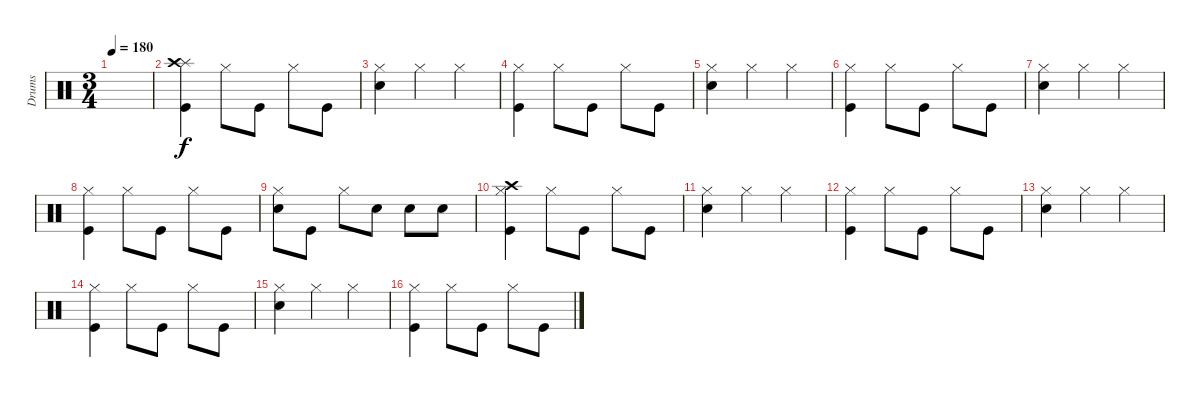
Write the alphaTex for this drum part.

\track ("Drums" "Drums") {instrument percussion}
\staff {score}
\articulation defaults
\ts (3 4)
\tempo 180
\clef neutral
\ks c
|
("Splash (hit)" "Crash high (hit)" "Kick (hit)").4 "Hi-Hat (closed)".8 "Kick (hit)".8 "Hi-Hat (closed)".8 "Kick (hit)".8 |
("Hi-Hat (closed)" "Electric Snare (hit)").4 "Hi-Hat (closed)".4 "Hi-Hat (closed)".4 |
("Hi-Hat (closed)" "Kick (hit)").4 "Hi-Hat (closed)".8 "Kick (hit)".8 "Hi-Hat (closed)".8 "Kick (hit)".8 |
("Hi-Hat (closed)" "Electric Snare (hit)").4 "Hi-Hat (closed)".4 "Hi-Hat (closed)".4 |
("Hi-Hat (closed)" "Kick (hit)").4 "Hi-Hat (closed)".8 "Kick (hit)".8 "Hi-Hat (closed)".8 "Kick (hit)".8 |
("Hi-Hat (closed)" "Electric Snare (hit)").4 "Hi-Hat (closed)".4 "Hi-Hat (closed)".4 |
("Hi-Hat (closed)" "Kick (hit)").4 "Hi-Hat (closed)".8 "Kick (hit)".8 "Hi-Hat (closed)".8 "Kick (hit)".8 |
("Hi-Hat (closed)" "Electric Snare (hit)").8 "Kick (hit)".8 "Hi-Hat (closed)".8 "Electric Snare (hit)".8 "Electric Snare (hit)".8 "Electric Snare (hit)".8 |
("Crash high (hit)" "Hi-Hat (closed)" "Kick (hit)").4 "Hi-Hat (closed)".8 "Kick (hit)".8 "Hi-Hat (closed)".8 "Kick (hit)".8 |
("Hi-Hat (closed)" "Electric Snare (hit)").4 "Hi-Hat (closed)".4 "Hi-Hat (closed)".4 |
("Hi-Hat (closed)" "Kick (hit)").4 "Hi-Hat (closed)".8 "Kick (hit)".8 "Hi-Hat (closed)".8 "Kick (hit)".8 |
("Hi-Hat (closed)" "Electric Snare (hit)").4 "Hi-Hat (closed)".4 "Hi-Hat (closed)".4 |
("Hi-Hat (closed)" "Kick (hit)").4 "Hi-Hat (closed)".8 "Kick (hit)".8 "Hi-Hat (closed)".8 "Kick (hit)".8 |
("Hi-Hat (closed)" "Electric Snare (hit)").4 "Hi-Hat (closed)".4 "Hi-Hat (closed)".4 |
("Hi-Hat (closed)" "Kick (hit)").4 "Hi-Hat (closed)".8 "Kick (hit)".8 "Hi-Hat (closed)".8 "Kick (hit)".8
